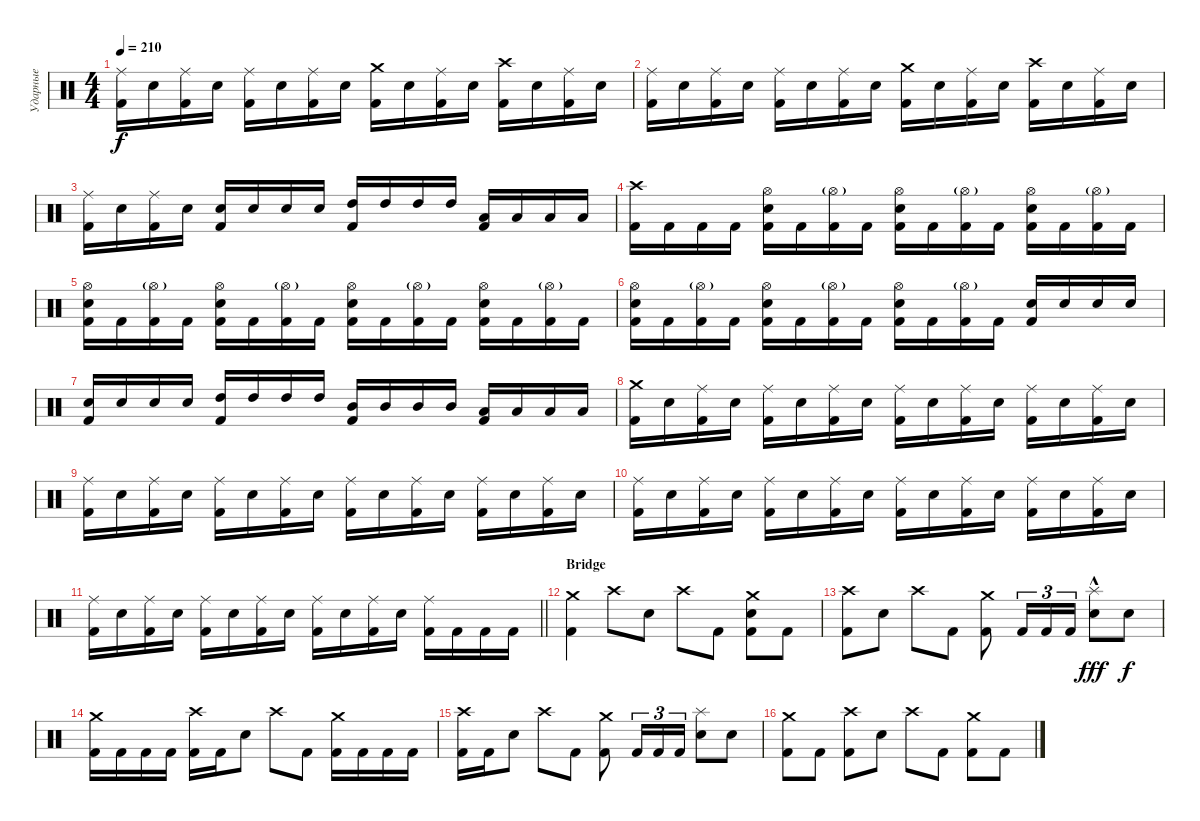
\track ("Ударные" "Ударные") {instrument percussion}
\staff {score}
\articulation defaults
\ts (4 4)
\tempo 210
\clef neutral
\ks c
("Ride (middle)" "Kick (hit) 2").16{dy f} "Electric Snare (hit)".16 ("Ride (middle)" "Kick (hit) 2").16 "Electric Snare (hit)".16 ("Ride (middle)" "Kick (hit) 2").16 "Electric Snare (hit)".16 ("Ride (middle)" "Kick (hit) 2").16 "Electric Snare (hit)".16 ("Crash medium (hit)" "Kick (hit) 2").16 "Electric Snare (hit)".16 ("Ride (middle)" "Kick (hit) 2").16 "Electric Snare (hit)".16 ("Crash high (hit)" "Kick (hit) 2").16 "Electric Snare (hit)".16 ("Ride (middle)" "Kick (hit) 2").16 "Electric Snare (hit)".16 |
("Ride (middle)" "Kick (hit) 2").16 "Electric Snare (hit)".16 ("Ride (middle)" "Kick (hit) 2").16 "Electric Snare (hit)".16 ("Ride (middle)" "Kick (hit) 2").16 "Electric Snare (hit)".16 ("Ride (middle)" "Kick (hit) 2").16 "Electric Snare (hit)".16 ("Crash medium (hit)" "Kick (hit) 2").16 "Electric Snare (hit)".16 ("Ride (middle)" "Kick (hit) 2").16 "Electric Snare (hit)".16 ("Crash high (hit)" "Kick (hit) 2").16 "Electric Snare (hit)".16 ("Ride (middle)" "Kick (hit) 2").16 "Electric Snare (hit)".16 |
("Ride (middle)" "Kick (hit) 2").16 "Electric Snare (hit)".16 ("Ride (middle)" "Kick (hit) 2").16 "Electric Snare (hit)".16 ("Electric Snare (hit)" "Kick (hit) 2").16 "Electric Snare (hit)".16 "Electric Snare (hit)".16 "Electric Snare (hit)".16 ("High Tom (hit)" "Kick (hit) 2").16 "High Tom (hit)".16 "High Tom (hit)".16 "High Tom (hit)".16 ("Low Tom (hit)" "Kick (hit) 2").16 "Low Tom (hit)".16 "Low Tom (hit)".16 "Low Tom (hit)".16 |
("Crash high (hit)" "Kick (hit) 2").16 "Kick (hit) 2".16 "Kick (hit) 2".16 "Kick (hit) 2".16 ("Hi-Hat (open)" "Electric Snare (hit)" "Kick (hit) 2").16 "Kick (hit) 2".16 ("Hi-Hat (open)"{g} "Kick (hit) 2").16 "Kick (hit) 2".16 ("Hi-Hat (open)" "Electric Snare (hit)" "Kick (hit) 2").16 "Kick (hit) 2".16 ("Hi-Hat (open)"{g} "Kick (hit) 2").16 "Kick (hit) 2".16 ("Hi-Hat (open)" "Electric Snare (hit)" "Kick (hit) 2").16 "Kick (hit) 2".16 ("Hi-Hat (open)"{g} "Kick (hit) 2").16 "Kick (hit) 2".16 |
("Hi-Hat (open)" "Electric Snare (hit)" "Kick (hit) 2").16 "Kick (hit) 2".16 ("Hi-Hat (open)"{g} "Kick (hit) 2").16 "Kick (hit) 2".16 ("Hi-Hat (open)" "Electric Snare (hit)" "Kick (hit) 2").16 "Kick (hit) 2".16 ("Hi-Hat (open)"{g} "Kick (hit) 2").16 "Kick (hit) 2".16 ("Hi-Hat (open)" "Electric Snare (hit)" "Kick (hit) 2").16 "Kick (hit) 2".16 ("Hi-Hat (open)"{g} "Kick (hit) 2").16 "Kick (hit) 2".16 ("Hi-Hat (open)" "Electric Snare (hit)" "Kick (hit) 2").16 "Kick (hit) 2".16 ("Hi-Hat (open)"{g} "Kick (hit) 2").16 "Kick (hit) 2".16 |
("Hi-Hat (open)" "Electric Snare (hit)" "Kick (hit) 2").16 "Kick (hit) 2".16 ("Hi-Hat (open)"{g} "Kick (hit) 2").16 "Kick (hit) 2".16 ("Hi-Hat (open)" "Electric Snare (hit)" "Kick (hit) 2").16 "Kick (hit) 2".16 ("Hi-Hat (open)"{g} "Kick (hit) 2").16 "Kick (hit) 2".16 ("Hi-Hat (open)" "Electric Snare (hit)" "Kick (hit) 2").16 "Kick (hit) 2".16 ("Hi-Hat (open)"{g} "Kick (hit) 2").16 "Kick (hit) 2".16 ("Electric Snare (hit)" "Kick (hit) 2").16 "Electric Snare (hit)".16 "Electric Snare (hit)".16 "Electric Snare (hit)".16 |
("Electric Snare (hit)" "Kick (hit) 2").16 "Electric Snare (hit)".16 "Electric Snare (hit)".16 "Electric Snare (hit)".16 ("High Tom (hit)" "Kick (hit) 2").16 "High Tom (hit)".16 "High Tom (hit)".16 "High Tom (hit)".16 ("Mid Tom (hit)" "Kick (hit) 2").16 "Mid Tom (hit)".16 "Mid Tom (hit)".16 "Mid Tom (hit)".16 ("Low Tom (hit)" "Kick (hit) 2").16 "Low Tom (hit)".16 "Low Tom (hit)".16 "Low Tom (hit)".16 |
("Crash medium (hit)" "Kick (hit) 2").16 "Electric Snare (hit)".16 ("Ride (middle)" "Kick (hit) 2").16 "Electric Snare (hit)".16 ("Ride (middle)" "Kick (hit) 2").16 "Electric Snare (hit)".16 ("Ride (middle)" "Kick (hit) 2").16 "Electric Snare (hit)".16 ("Ride (middle)" "Kick (hit) 2").16 "Electric Snare (hit)".16 ("Ride (middle)" "Kick (hit) 2").16 "Electric Snare (hit)".16 ("Ride (middle)" "Kick (hit) 2").16 "Electric Snare (hit)".16 ("Ride (middle)" "Kick (hit) 2").16 "Electric Snare (hit)".16 |
("Ride (middle)" "Kick (hit) 2").16 "Electric Snare (hit)".16 ("Ride (middle)" "Kick (hit) 2").16 "Electric Snare (hit)".16 ("Ride (middle)" "Kick (hit) 2").16 "Electric Snare (hit)".16 ("Ride (middle)" "Kick (hit) 2").16 "Electric Snare (hit)".16 ("Ride (middle)" "Kick (hit) 2").16 "Electric Snare (hit)".16 ("Ride (middle)" "Kick (hit) 2").16 "Electric Snare (hit)".16 ("Ride (middle)" "Kick (hit) 2").16 "Electric Snare (hit)".16 ("Ride (middle)" "Kick (hit) 2").16 "Electric Snare (hit)".16 |
("Ride (middle)" "Kick (hit) 2").16 "Electric Snare (hit)".16 ("Ride (middle)" "Kick (hit) 2").16 "Electric Snare (hit)".16 ("Ride (middle)" "Kick (hit) 2").16 "Electric Snare (hit)".16 ("Ride (middle)" "Kick (hit) 2").16 "Electric Snare (hit)".16 ("Ride (middle)" "Kick (hit) 2").16 "Electric Snare (hit)".16 ("Ride (middle)" "Kick (hit) 2").16 "Electric Snare (hit)".16 ("Ride (middle)" "Kick (hit) 2").16 "Electric Snare (hit)".16 ("Ride (middle)" "Kick (hit) 2").16 "Electric Snare (hit)".16 |
\barLineRight lightlight
("Ride (middle)" "Kick (hit) 2").16 "Electric Snare (hit)".16 ("Ride (middle)" "Kick (hit) 2").16 "Electric Snare (hit)".16 ("Ride (middle)" "Kick (hit) 2").16 "Electric Snare (hit)".16 ("Ride (middle)" "Kick (hit) 2").16 "Electric Snare (hit)".16 ("Ride (middle)" "Kick (hit) 2").16 "Electric Snare (hit)".16 ("Ride (middle)" "Kick (hit) 2").16 "Electric Snare (hit)".16 ("Ride (middle)" "Kick (hit) 2").16 "Kick (hit) 2".16 "Kick (hit) 2".16 "Kick (hit) 2".16 |
\section ("" "Bridge")
("Crash medium (hit)" "Kick (hit) 2").4 "Crash high (hit)".8 "Electric Snare (hit)".8 "Crash high (hit)".8 "Kick (hit) 2".8 ("Crash medium (hit)" "Electric Snare (hit)" "Kick (hit) 2").8 "Kick (hit) 2".8 |
("Crash high (hit)" "Kick (hit) 2").8 "Electric Snare (hit)".8 "Crash high (hit)".8 "Kick (hit) 2".8 ("Crash medium (hit)" "Kick (hit) 2").8 "Kick (hit) 2".16{tu (3 2)} "Kick (hit) 2".16{tu (3 2)} "Kick (hit) 2".16{tu (3 2)} ("Splash (hit)"{hac} "Electric Snare (hit)").8{dy fff} "Electric Snare (hit)".8{dy f} |
("Crash medium (hit)" "Kick (hit) 2").16 "Kick (hit) 2".16 "Kick (hit) 2".16 "Kick (hit) 2".16 ("Crash high (hit)" "Kick (hit) 2").16 "Kick (hit) 2".16 "Electric Snare (hit)".8 "Crash high (hit)".8 "Kick (hit) 2".8 ("Crash medium (hit)" "Kick (hit) 2").16 "Kick (hit) 2".16 "Kick (hit) 2".16 "Kick (hit) 2".16 |
("Crash high (hit)" "Kick (hit) 2").16 "Kick (hit) 2".16 "Electric Snare (hit)".8 "Crash high (hit)".8 "Kick (hit) 2".8 ("Crash medium (hit)" "Kick (hit) 2").8 "Kick (hit) 2".16{tu (3 2)} "Kick (hit) 2".16{tu (3 2)} "Kick (hit) 2".16{tu (3 2)} ("Splash (hit)" "Electric Snare (hit)").8 "Electric Snare (hit)".8 |
("Crash medium (hit)" "Kick (hit) 2").8 "Kick (hit) 2".8 ("Crash high (hit)" "Kick (hit) 2").8 "Electric Snare (hit)".8 "Crash high (hit)".8 "Kick (hit) 2".8 ("Crash medium (hit)" "Kick (hit) 2").8 "Kick (hit) 2".8
